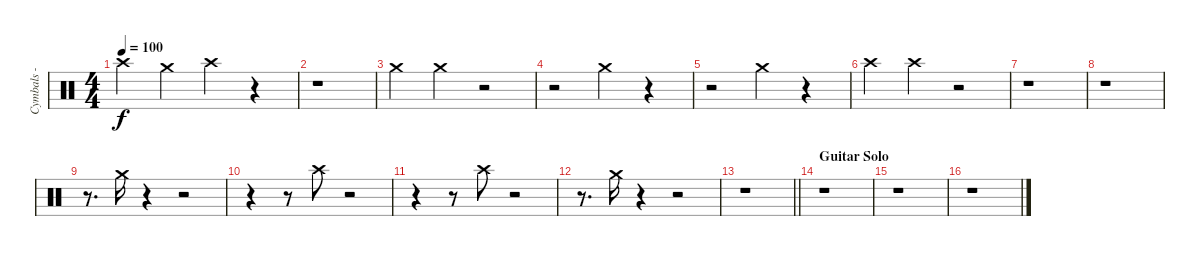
\track ("Cymbals - crash - left" "Cymbals - ") {instrument percussion}
\staff {score}
\articulation defaults
\ts (4 4)
\tempo 100
\clef neutral
\ks c "Crash high (hit)".4{dy f} "Crash medium (hit)".4 "Crash high (hit)".4
r.4 |
r.1 |
"Crash medium (hit)".4 "Crash medium (hit)".4 r.2 |
r.2 "Crash medium (hit)".4 r.4 |
r.2 "Crash medium (hit)".4 r.4 |
"Crash high (hit)".4 "Crash high (hit)".4 r.2 |
r.1 |
r.1 |
r.8{d} "Crash medium (hit)".16 r.4 r.2 |
r.4 r.8 "Crash high (hit)".8 r.2 |
r.4 r.8 "Crash high (hit)".8 r.2 |
r.8{d} "Crash medium (hit)".16 r.4 r.2 |
\barLineRight lightlight
r.1 |
\section ("" "Guitar Solo")
r.1 |
r.1 |
r.1
